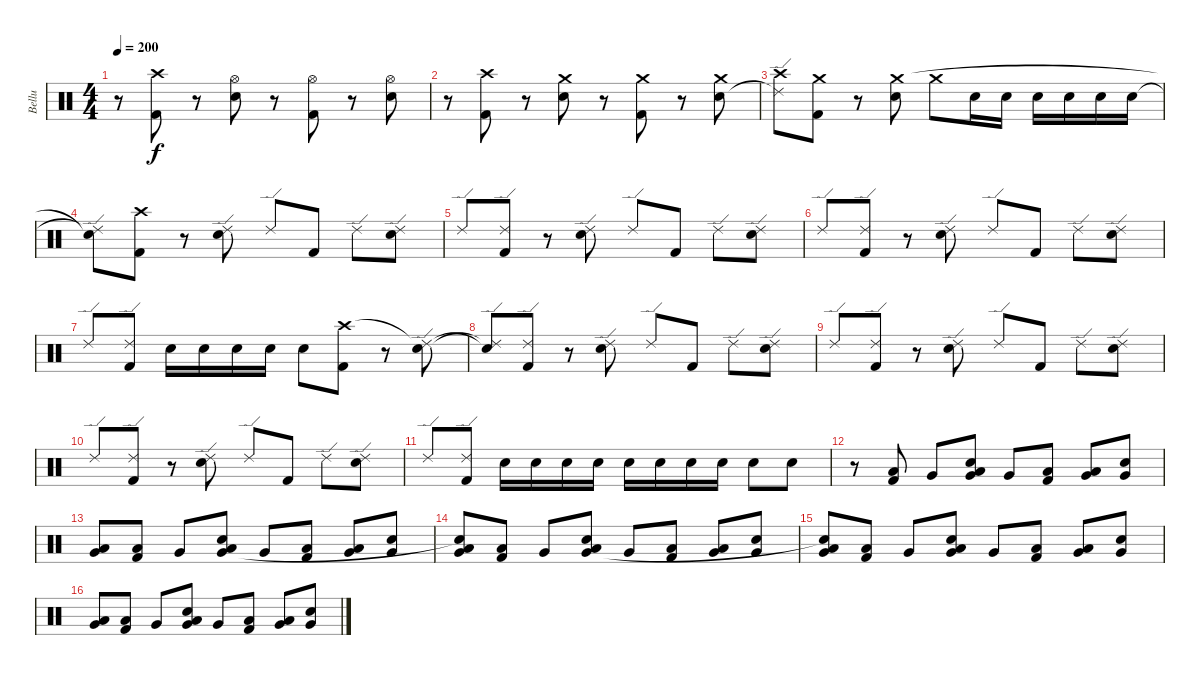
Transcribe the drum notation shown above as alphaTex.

\track ("Bellu" "Bellu") {instrument percussion}
\staff {score}
\articulation defaults
\ts (4 4)
\tempo 200
\clef neutral
\ks c
r.8{dy f} ("Kick (hit) 2" "Crash high (hit)").8 r.8 ("Electric Snare (hit)" "Hi-Hat (open)").8 r.8 ("Kick (hit) 2" "Hi-Hat (open)").8 r.8 ("Electric Snare (hit)" "Hi-Hat (open)").8 |
r.8 ("Kick (hit) 2" "Crash high (hit)").8 r.8 ("Electric Snare (hit)" "Crash medium (hit)").8 r.8 ("Kick (hit) 2" "Crash medium (hit)").8 r.8 ("Electric Snare (hit)" "Crash medium (hit)").8 |
("Ride (edge) 2"{t} "Crash high (hit)").8 ("Kick (hit) 2" "Crash medium (hit)").8 r.8 ("Electric Snare (hit)" "Crash medium (hit)").8 "Crash medium (hit)".8 "Electric Snare (hit)".16 "Electric Snare (hit)".16 "Electric Snare (hit)".16 "Electric Snare (hit)".16 "Electric Snare (hit)".16 "Electric Snare (hit)".16 |
("Ride (edge) 2"{t} "Snare (hit)"{t}).8 ("Kick (hit) 2" "Crash high (hit)").8 r.8 ("Electric Snare (hit)" "Ride (edge) 2").8 "Ride (edge) 2".8 "Kick (hit) 2".8 "Ride (edge) 2".8 ("Electric Snare (hit)" "Ride (edge) 2").8 |
"Ride (edge) 2".8 ("Kick (hit) 2" "Ride (edge) 2").8 r.8 ("Electric Snare (hit)" "Ride (edge) 2").8 "Ride (edge) 2".8 "Kick (hit) 2".8 "Ride (edge) 2".8 ("Electric Snare (hit)" "Ride (edge) 2").8 |
"Ride (edge) 2".8 ("Kick (hit) 2" "Ride (edge) 2").8 r.8 ("Electric Snare (hit)" "Ride (edge) 2").8 "Ride (edge) 2".8 "Kick (hit) 2".8 "Ride (edge) 2".8 ("Electric Snare (hit)" "Ride (edge) 2").8 |
"Ride (edge) 2".8 ("Kick (hit) 2" "Ride (edge) 2").8 "Electric Snare (hit)".16 "Electric Snare (hit)".16 "Electric Snare (hit)".16 "Electric Snare (hit)".16 "Electric Snare (hit)".8 ("Kick (hit) 2" "Crash high (hit)").8 r.8 ("Electric Snare (hit)" "Ride (edge) 2"{t}).8 |
("Ride (edge) 2"{t} "Snare (hit)"{t}).8 ("Kick (hit) 2" "Ride (edge) 2").8 r.8 ("Electric Snare (hit)" "Ride (edge) 2").8 "Ride (edge) 2".8 "Kick (hit) 2".8 "Ride (edge) 2".8 ("Electric Snare (hit)" "Ride (edge) 2").8 |
"Ride (edge) 2".8 ("Kick (hit) 2" "Ride (edge) 2").8 r.8 ("Electric Snare (hit)" "Ride (edge) 2").8 "Ride (edge) 2".8 "Kick (hit) 2".8 "Ride (edge) 2".8 ("Electric Snare (hit)" "Ride (edge) 2").8 |
"Ride (edge) 2".8 ("Kick (hit) 2" "Ride (edge) 2").8 r.8 ("Electric Snare (hit)" "Ride (edge) 2").8 "Ride (edge) 2".8 "Kick (hit) 2".8 "Ride (edge) 2".8 ("Electric Snare (hit)" "Ride (edge) 2").8 |
"Ride (edge) 2".8 ("Kick (hit) 2" "Ride (edge) 2").8 "Electric Snare (hit)".16 "Electric Snare (hit)".16 "Electric Snare (hit)".16 "Electric Snare (hit)".16 "Electric Snare (hit)".16 "Electric Snare (hit)".16 "Electric Snare (hit)".16 "Electric Snare (hit)".16 "Electric Snare (hit)".8 "Electric Snare (hit)".8 |
r.8 ("Kick (hit) 2" "Low Floor Tom (hit)").8 "Very Low Tom (hit)".8 ("Electric Snare (hit)" "Low Floor Tom (hit)" "Very Low Tom (hit)").8 "Very Low Tom (hit)".8 ("Kick (hit) 2" "Low Floor Tom (hit)").8 ("Low Floor Tom (hit)" "Very Low Tom (hit)").8 ("Electric Snare (hit)" "Very Low Tom (hit)").8 |
("Low Floor Tom (hit)" "Very Low Tom (hit)").8 ("Kick (hit) 2" "Low Floor Tom (hit)").8 "Very Low Tom (hit)".8 ("Electric Snare (hit)" "Low Floor Tom (hit)" "Very Low Tom (hit)").8 "Very Low Tom (hit)".8 ("Kick (hit) 2" "Low Floor Tom (hit)").8 ("Low Floor Tom (hit)" "Very Low Tom (hit)").8 ("Electric Snare (hit)" "Very Low Tom (hit)").8 |
("Low Floor Tom (hit)" "Very Low Tom (hit)" "Snare (hit)"{t}).8 ("Kick (hit) 2" "Low Floor Tom (hit)").8 "Very Low Tom (hit)".8 ("Electric Snare (hit)" "Low Floor Tom (hit)" "Very Low Tom (hit)").8 "Very Low Tom (hit)".8 ("Kick (hit) 2" "Low Floor Tom (hit)").8 ("Low Floor Tom (hit)" "Very Low Tom (hit)").8 ("Electric Snare (hit)" "Very Low Tom (hit)").8 |
("Low Floor Tom (hit)" "Very Low Tom (hit)" "Snare (hit)"{t}).8 ("Kick (hit) 2" "Low Floor Tom (hit)").8 "Very Low Tom (hit)".8 ("Electric Snare (hit)" "Low Floor Tom (hit)" "Very Low Tom (hit)").8 "Very Low Tom (hit)".8 ("Kick (hit) 2" "Low Floor Tom (hit)").8 ("Low Floor Tom (hit)" "Very Low Tom (hit)").8 ("Electric Snare (hit)" "Very Low Tom (hit)").8 |
("Low Floor Tom (hit)" "Very Low Tom (hit)").8 ("Kick (hit) 2" "Low Floor Tom (hit)").8 "Very Low Tom (hit)".8 ("Electric Snare (hit)" "Low Floor Tom (hit)" "Very Low Tom (hit)").8 "Very Low Tom (hit)".8 ("Kick (hit) 2" "Low Floor Tom (hit)").8 ("Low Floor Tom (hit)" "Very Low Tom (hit)").8 ("Electric Snare (hit)" "Very Low Tom (hit)").8
